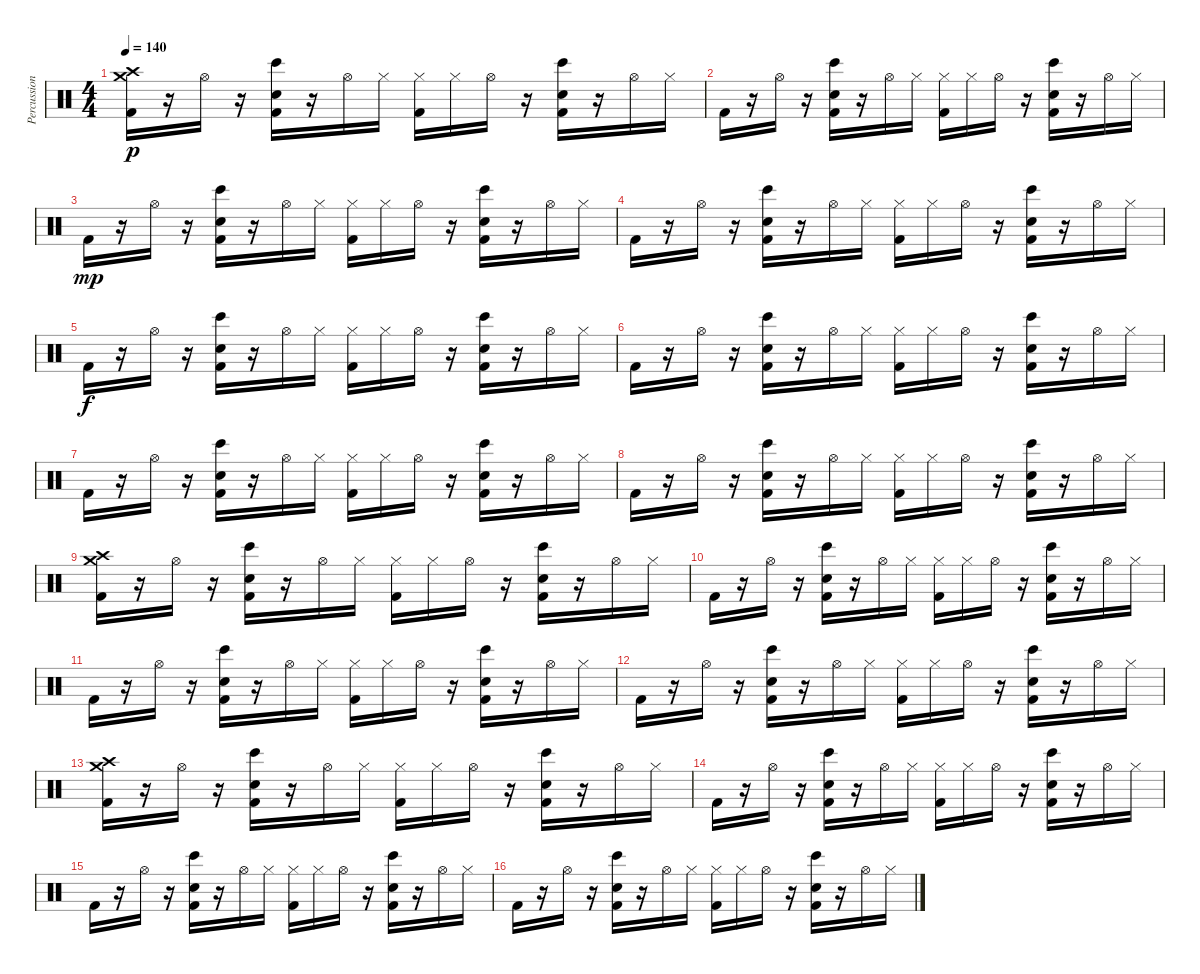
\track ("Percussion" "Percussion") {instrument percussion}
\staff {score}
\articulation defaults
\ts (4 4)
\tempo 140
\clef neutral
\ks c
("Crash high (hit)" "Crash medium (hit)" "Kick (hit) 2").16{dy p} r.16 "Hi-Hat (open)".16 r.16 ("Hand Clap (hit)" "Bongo High (hit)" "Kick (hit) 2").16 r.16 "Hi-Hat (open)".16 "Hi-Hat (closed)".16 ("Hi-Hat (closed)" "Kick (hit) 2").16 "Hi-Hat (closed)".16 "Hi-Hat (open)".16 r.16 ("Hand Clap (hit)" "Bongo High (hit)" "Kick (hit) 2").16 r.16 "Hi-Hat (open)".16 "Hi-Hat (closed)".16 |
"Kick (hit) 2".16 r.16 "Hi-Hat (open)".16 r.16 ("Hand Clap (hit)" "Bongo High (hit)" "Kick (hit) 2").16 r.16 "Hi-Hat (open)".16 "Hi-Hat (closed)".16 ("Hi-Hat (closed)" "Kick (hit) 2").16 "Hi-Hat (closed)".16 "Hi-Hat (open)".16 r.16 ("Hand Clap (hit)" "Bongo High (hit)" "Kick (hit) 2").16 r.16 "Hi-Hat (open)".16 "Hi-Hat (closed)".16 |
"Kick (hit) 2".16{dy mp} r.16 "Hi-Hat (open)".16 r.16 ("Hand Clap (hit)" "Bongo High (hit)" "Kick (hit) 2").16 r.16 "Hi-Hat (open)".16 "Hi-Hat (closed)".16 ("Hi-Hat (closed)" "Kick (hit) 2").16 "Hi-Hat (closed)".16 "Hi-Hat (open)".16 r.16 ("Hand Clap (hit)" "Bongo High (hit)" "Kick (hit) 2").16 r.16 "Hi-Hat (open)".16 "Hi-Hat (closed)".16 |
"Kick (hit) 2".16 r.16 "Hi-Hat (open)".16 r.16 ("Hand Clap (hit)" "Bongo High (hit)" "Kick (hit) 2").16 r.16 "Hi-Hat (open)".16 "Hi-Hat (closed)".16 ("Hi-Hat (closed)" "Kick (hit) 2").16 "Hi-Hat (closed)".16 "Hi-Hat (open)".16 r.16 ("Hand Clap (hit)" "Bongo High (hit)" "Kick (hit) 2").16 r.16 "Hi-Hat (open)".16 "Hi-Hat (closed)".16 |
"Kick (hit) 2".16{dy f} r.16 "Hi-Hat (open)".16 r.16 ("Hand Clap (hit)" "Bongo High (hit)" "Kick (hit) 2").16 r.16 "Hi-Hat (open)".16 "Hi-Hat (closed)".16 ("Hi-Hat (closed)" "Kick (hit) 2").16 "Hi-Hat (closed)".16 "Hi-Hat (open)".16 r.16 ("Hand Clap (hit)" "Bongo High (hit)" "Kick (hit) 2").16 r.16 "Hi-Hat (open)".16 "Hi-Hat (closed)".16 |
"Kick (hit) 2".16 r.16 "Hi-Hat (open)".16 r.16 ("Hand Clap (hit)" "Bongo High (hit)" "Kick (hit) 2").16 r.16 "Hi-Hat (open)".16 "Hi-Hat (closed)".16 ("Hi-Hat (closed)" "Kick (hit) 2").16 "Hi-Hat (closed)".16 "Hi-Hat (open)".16 r.16 ("Hand Clap (hit)" "Bongo High (hit)" "Kick (hit) 2").16 r.16 "Hi-Hat (open)".16 "Hi-Hat (closed)".16 |
"Kick (hit) 2".16 r.16 "Hi-Hat (open)".16 r.16 ("Hand Clap (hit)" "Bongo High (hit)" "Kick (hit) 2").16 r.16 "Hi-Hat (open)".16 "Hi-Hat (closed)".16 ("Hi-Hat (closed)" "Kick (hit) 2").16 "Hi-Hat (closed)".16 "Hi-Hat (open)".16 r.16 ("Hand Clap (hit)" "Bongo High (hit)" "Kick (hit) 2").16 r.16 "Hi-Hat (open)".16 "Hi-Hat (closed)".16 |
"Kick (hit) 2".16 r.16 "Hi-Hat (open)".16 r.16 ("Hand Clap (hit)" "Bongo High (hit)" "Kick (hit) 2").16 r.16 "Hi-Hat (open)".16 "Hi-Hat (closed)".16 ("Hi-Hat (closed)" "Kick (hit) 2").16 "Hi-Hat (closed)".16 "Hi-Hat (open)".16 r.16 ("Hand Clap (hit)" "Bongo High (hit)" "Kick (hit) 2").16 r.16 "Hi-Hat (open)".16 "Hi-Hat (closed)".16 |
("Crash high (hit)" "Crash medium (hit)" "Kick (hit) 2").16 r.16 "Hi-Hat (open)".16 r.16 ("Hand Clap (hit)" "Bongo High (hit)" "Kick (hit) 2").16 r.16 "Hi-Hat (open)".16 "Hi-Hat (closed)".16 ("Hi-Hat (closed)" "Kick (hit) 2").16 "Hi-Hat (closed)".16 "Hi-Hat (open)".16 r.16 ("Hand Clap (hit)" "Bongo High (hit)" "Kick (hit) 2").16 r.16 "Hi-Hat (open)".16 "Hi-Hat (closed)".16 |
"Kick (hit) 2".16 r.16 "Hi-Hat (open)".16 r.16 ("Hand Clap (hit)" "Bongo High (hit)" "Kick (hit) 2").16 r.16 "Hi-Hat (open)".16 "Hi-Hat (closed)".16 ("Hi-Hat (closed)" "Kick (hit) 2").16 "Hi-Hat (closed)".16 "Hi-Hat (open)".16 r.16 ("Hand Clap (hit)" "Bongo High (hit)" "Kick (hit) 2").16 r.16 "Hi-Hat (open)".16 "Hi-Hat (closed)".16 |
"Kick (hit) 2".16 r.16 "Hi-Hat (open)".16 r.16 ("Hand Clap (hit)" "Bongo High (hit)" "Kick (hit) 2").16 r.16 "Hi-Hat (open)".16 "Hi-Hat (closed)".16 ("Hi-Hat (closed)" "Kick (hit) 2").16 "Hi-Hat (closed)".16 "Hi-Hat (open)".16 r.16 ("Hand Clap (hit)" "Bongo High (hit)" "Kick (hit) 2").16 r.16 "Hi-Hat (open)".16 "Hi-Hat (closed)".16 |
"Kick (hit) 2".16 r.16 "Hi-Hat (open)".16 r.16 ("Hand Clap (hit)" "Bongo High (hit)" "Kick (hit) 2").16 r.16 "Hi-Hat (open)".16 "Hi-Hat (closed)".16 ("Hi-Hat (closed)" "Kick (hit) 2").16 "Hi-Hat (closed)".16 "Hi-Hat (open)".16 r.16 ("Hand Clap (hit)" "Bongo High (hit)" "Kick (hit) 2").16 r.16 "Hi-Hat (open)".16 "Hi-Hat (closed)".16 |
("Crash high (hit)" "Crash medium (hit)" "Kick (hit) 2").16 r.16 "Hi-Hat (open)".16 r.16 ("Hand Clap (hit)" "Bongo High (hit)" "Kick (hit) 2").16 r.16 "Hi-Hat (open)".16 "Hi-Hat (closed)".16 ("Hi-Hat (closed)" "Kick (hit) 2").16 "Hi-Hat (closed)".16 "Hi-Hat (open)".16 r.16 ("Hand Clap (hit)" "Bongo High (hit)" "Kick (hit) 2").16 r.16 "Hi-Hat (open)".16 "Hi-Hat (closed)".16 |
"Kick (hit) 2".16 r.16 "Hi-Hat (open)".16 r.16 ("Hand Clap (hit)" "Bongo High (hit)" "Kick (hit) 2").16 r.16 "Hi-Hat (open)".16 "Hi-Hat (closed)".16 ("Hi-Hat (closed)" "Kick (hit) 2").16 "Hi-Hat (closed)".16 "Hi-Hat (open)".16 r.16 ("Hand Clap (hit)" "Bongo High (hit)" "Kick (hit) 2").16 r.16 "Hi-Hat (open)".16 "Hi-Hat (closed)".16 |
"Kick (hit) 2".16 r.16 "Hi-Hat (open)".16 r.16 ("Hand Clap (hit)" "Bongo High (hit)" "Kick (hit) 2").16 r.16 "Hi-Hat (open)".16 "Hi-Hat (closed)".16 ("Hi-Hat (closed)" "Kick (hit) 2").16 "Hi-Hat (closed)".16 "Hi-Hat (open)".16 r.16 ("Hand Clap (hit)" "Bongo High (hit)" "Kick (hit) 2").16 r.16 "Hi-Hat (open)".16 "Hi-Hat (closed)".16 |
"Kick (hit) 2".16 r.16 "Hi-Hat (open)".16 r.16 ("Hand Clap (hit)" "Bongo High (hit)" "Kick (hit) 2").16 r.16 "Hi-Hat (open)".16 "Hi-Hat (closed)".16 ("Hi-Hat (closed)" "Kick (hit) 2").16 "Hi-Hat (closed)".16 "Hi-Hat (open)".16 r.16 ("Hand Clap (hit)" "Bongo High (hit)" "Kick (hit) 2").16 r.16 "Hi-Hat (open)".16 "Hi-Hat (closed)".16
